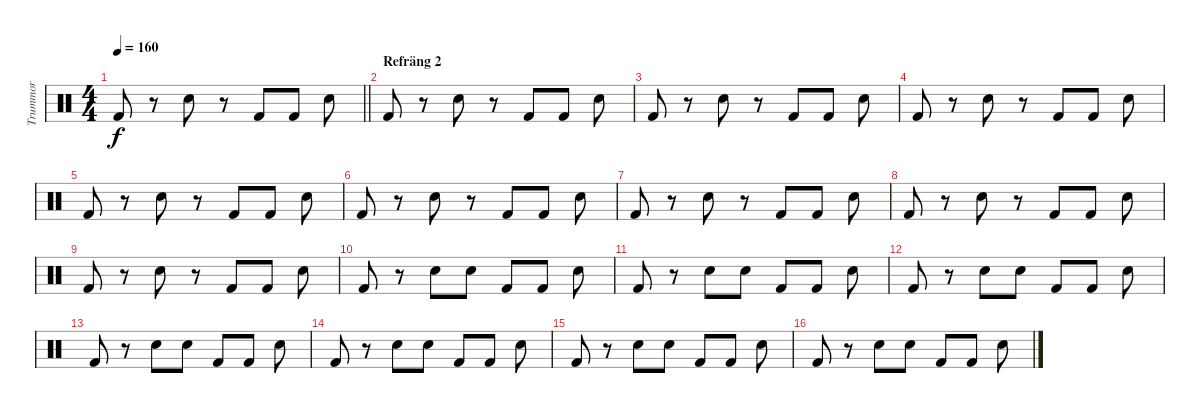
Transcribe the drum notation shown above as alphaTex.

\track ("Trummor" "Trummor") {instrument percussion}
\staff {score}
\articulation defaults
\ts (4 4)
\tempo 160
\clef neutral
\barLineRight lightlight
\ks c "Kick (hit) 2".8{dy f}
r.8 "Snare (hit) 2".8 r.8 "Kick (hit) 2".8 "Kick (hit) 2".8 "Snare (hit) 2".8 |
\section ("" "Refräng 2")
"Kick (hit) 2".8 r.8 "Snare (hit) 2".8 r.8 "Kick (hit) 2".8 "Kick (hit) 2".8 "Snare (hit) 2".8 |
"Kick (hit) 2".8 r.8 "Snare (hit) 2".8 r.8 "Kick (hit) 2".8 "Kick (hit) 2".8 "Snare (hit) 2".8 |
"Kick (hit) 2".8 r.8 "Snare (hit) 2".8 r.8 "Kick (hit) 2".8 "Kick (hit) 2".8 "Snare (hit) 2".8 |
"Kick (hit) 2".8 r.8 "Snare (hit) 2".8 r.8 "Kick (hit) 2".8 "Kick (hit) 2".8 "Snare (hit) 2".8 |
"Kick (hit) 2".8 r.8 "Snare (hit) 2".8 r.8 "Kick (hit) 2".8 "Kick (hit) 2".8 "Snare (hit) 2".8 |
"Kick (hit) 2".8 r.8 "Snare (hit) 2".8 r.8 "Kick (hit) 2".8 "Kick (hit) 2".8 "Snare (hit) 2".8 |
"Kick (hit) 2".8 r.8 "Snare (hit) 2".8 r.8 "Kick (hit) 2".8 "Kick (hit) 2".8 "Snare (hit) 2".8 |
"Kick (hit) 2".8 r.8 "Snare (hit) 2".8 r.8 "Kick (hit) 2".8 "Kick (hit) 2".8 "Snare (hit) 2".8 |
"Kick (hit) 2".8 r.8 "Snare (hit) 2".8 "Snare (hit) 2".8 "Kick (hit) 2".8 "Kick (hit) 2".8 "Snare (hit) 2".8 |
"Kick (hit) 2".8 r.8 "Snare (hit) 2".8 "Snare (hit) 2".8 "Kick (hit) 2".8 "Kick (hit) 2".8 "Snare (hit) 2".8 |
"Kick (hit) 2".8 r.8 "Snare (hit) 2".8 "Snare (hit) 2".8 "Kick (hit) 2".8 "Kick (hit) 2".8 "Snare (hit) 2".8 |
"Kick (hit) 2".8 r.8 "Snare (hit) 2".8 "Snare (hit) 2".8 "Kick (hit) 2".8 "Kick (hit) 2".8 "Snare (hit) 2".8 |
"Kick (hit) 2".8 r.8 "Snare (hit) 2".8 "Snare (hit) 2".8 "Kick (hit) 2".8 "Kick (hit) 2".8 "Snare (hit) 2".8 |
"Kick (hit) 2".8 r.8 "Snare (hit) 2".8 "Snare (hit) 2".8 "Kick (hit) 2".8 "Kick (hit) 2".8 "Snare (hit) 2".8 |
"Kick (hit) 2".8 r.8 "Snare (hit) 2".8 "Snare (hit) 2".8 "Kick (hit) 2".8 "Kick (hit) 2".8 "Snare (hit) 2".8
